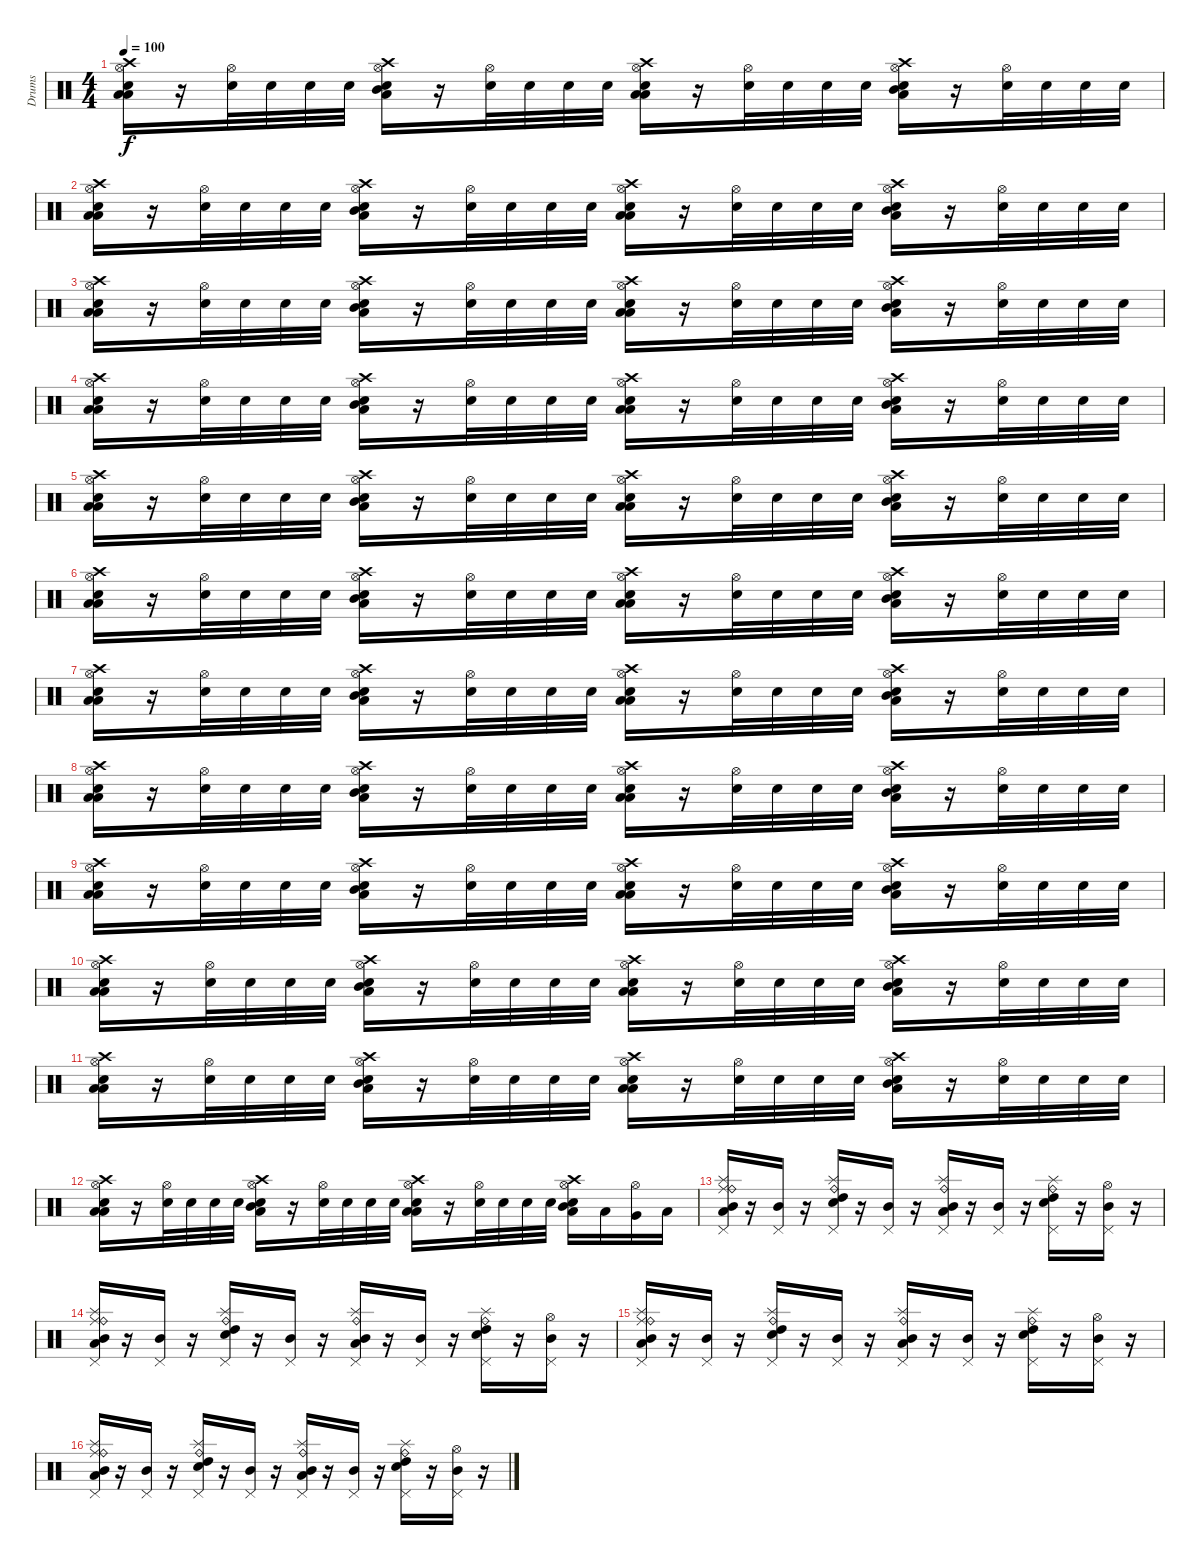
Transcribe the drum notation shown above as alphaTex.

\track ("Drums" "Drums") {instrument percussion}
\staff {score}
\articulation defaults
\ts (4 4)
\tempo 100
\clef neutral
\ks c
("Hi-Hat (open)" "Crash high (hit)" "Low Tom (hit)" "Low Floor Tom (hit)" "Electric Snare (hit)").16{dy f} r.16 ("Hi-Hat (open)" "Electric Snare (hit)").32 "Electric Snare (hit)".32 "Electric Snare (hit)".32 "Electric Snare (hit)".32 ("Hi-Hat (open)" "Crash high (hit)" "Mid Tom (hit)" "Low Floor Tom (hit)" "Electric Snare (hit)").16 r.16 ("Hi-Hat (open)" "Electric Snare (hit)").32 "Electric Snare (hit)".32 "Electric Snare (hit)".32 "Electric Snare (hit)".32 ("Hi-Hat (open)" "Crash high (hit)" "Low Tom (hit)" "Low Floor Tom (hit)" "Electric Snare (hit)").16 r.16 ("Hi-Hat (open)" "Electric Snare (hit)").32 "Electric Snare (hit)".32 "Electric Snare (hit)".32 "Electric Snare (hit)".32 ("Hi-Hat (open)" "Crash high (hit)" "Mid Tom (hit)" "Electric Snare (hit)" "Low Floor Tom (hit)").16 r.16 ("Hi-Hat (open)" "Electric Snare (hit)").32 "Electric Snare (hit)".32 "Electric Snare (hit)".32 "Electric Snare (hit)".32 |
("Hi-Hat (open)" "Crash high (hit)" "Low Tom (hit)" "Low Floor Tom (hit)" "Electric Snare (hit)").16 r.16 ("Hi-Hat (open)" "Electric Snare (hit)").32 "Electric Snare (hit)".32 "Electric Snare (hit)".32 "Electric Snare (hit)".32 ("Hi-Hat (open)" "Crash high (hit)" "Mid Tom (hit)" "Low Floor Tom (hit)" "Electric Snare (hit)").16 r.16 ("Hi-Hat (open)" "Electric Snare (hit)").32 "Electric Snare (hit)".32 "Electric Snare (hit)".32 "Electric Snare (hit)".32 ("Hi-Hat (open)" "Crash high (hit)" "Low Tom (hit)" "Low Floor Tom (hit)" "Electric Snare (hit)").16 r.16 ("Hi-Hat (open)" "Electric Snare (hit)").32 "Electric Snare (hit)".32 "Electric Snare (hit)".32 "Electric Snare (hit)".32 ("Hi-Hat (open)" "Crash high (hit)" "Mid Tom (hit)" "Electric Snare (hit)" "Low Floor Tom (hit)").16 r.16 ("Hi-Hat (open)" "Electric Snare (hit)").32 "Electric Snare (hit)".32 "Electric Snare (hit)".32 "Electric Snare (hit)".32 |
("Hi-Hat (open)" "Crash high (hit)" "Low Tom (hit)" "Low Floor Tom (hit)" "Electric Snare (hit)").16 r.16 ("Hi-Hat (open)" "Electric Snare (hit)").32 "Electric Snare (hit)".32 "Electric Snare (hit)".32 "Electric Snare (hit)".32 ("Hi-Hat (open)" "Crash high (hit)" "Mid Tom (hit)" "Low Floor Tom (hit)" "Electric Snare (hit)").16 r.16 ("Hi-Hat (open)" "Electric Snare (hit)").32 "Electric Snare (hit)".32 "Electric Snare (hit)".32 "Electric Snare (hit)".32 ("Hi-Hat (open)" "Crash high (hit)" "Low Tom (hit)" "Low Floor Tom (hit)" "Electric Snare (hit)").16 r.16 ("Hi-Hat (open)" "Electric Snare (hit)").32 "Electric Snare (hit)".32 "Electric Snare (hit)".32 "Electric Snare (hit)".32 ("Hi-Hat (open)" "Crash high (hit)" "Mid Tom (hit)" "Electric Snare (hit)" "Low Floor Tom (hit)").16 r.16 ("Hi-Hat (open)" "Electric Snare (hit)").32 "Electric Snare (hit)".32 "Electric Snare (hit)".32 "Electric Snare (hit)".32 |
("Hi-Hat (open)" "Crash high (hit)" "Low Tom (hit)" "Low Floor Tom (hit)" "Electric Snare (hit)").16 r.16 ("Hi-Hat (open)" "Electric Snare (hit)").32 "Electric Snare (hit)".32 "Electric Snare (hit)".32 "Electric Snare (hit)".32 ("Hi-Hat (open)" "Crash high (hit)" "Mid Tom (hit)" "Low Floor Tom (hit)" "Electric Snare (hit)").16 r.16 ("Hi-Hat (open)" "Electric Snare (hit)").32 "Electric Snare (hit)".32 "Electric Snare (hit)".32 "Electric Snare (hit)".32 ("Hi-Hat (open)" "Crash high (hit)" "Low Tom (hit)" "Low Floor Tom (hit)" "Electric Snare (hit)").16 r.16 ("Hi-Hat (open)" "Electric Snare (hit)").32 "Electric Snare (hit)".32 "Electric Snare (hit)".32 "Electric Snare (hit)".32 ("Hi-Hat (open)" "Crash high (hit)" "Mid Tom (hit)" "Electric Snare (hit)" "Low Floor Tom (hit)").16 r.16 ("Hi-Hat (open)" "Electric Snare (hit)").32 "Electric Snare (hit)".32 "Electric Snare (hit)".32 "Electric Snare (hit)".32 |
("Hi-Hat (open)" "Crash high (hit)" "Low Tom (hit)" "Low Floor Tom (hit)" "Electric Snare (hit)").16 r.16 ("Hi-Hat (open)" "Electric Snare (hit)").32 "Electric Snare (hit)".32 "Electric Snare (hit)".32 "Electric Snare (hit)".32 ("Hi-Hat (open)" "Crash high (hit)" "Mid Tom (hit)" "Low Floor Tom (hit)" "Electric Snare (hit)").16 r.16 ("Hi-Hat (open)" "Electric Snare (hit)").32 "Electric Snare (hit)".32 "Electric Snare (hit)".32 "Electric Snare (hit)".32 ("Hi-Hat (open)" "Crash high (hit)" "Low Tom (hit)" "Low Floor Tom (hit)" "Electric Snare (hit)").16 r.16 ("Hi-Hat (open)" "Electric Snare (hit)").32 "Electric Snare (hit)".32 "Electric Snare (hit)".32 "Electric Snare (hit)".32 ("Hi-Hat (open)" "Crash high (hit)" "Mid Tom (hit)" "Electric Snare (hit)" "Low Floor Tom (hit)").16 r.16 ("Hi-Hat (open)" "Electric Snare (hit)").32 "Electric Snare (hit)".32 "Electric Snare (hit)".32 "Electric Snare (hit)".32 |
("Hi-Hat (open)" "Crash high (hit)" "Low Tom (hit)" "Low Floor Tom (hit)" "Electric Snare (hit)").16 r.16 ("Hi-Hat (open)" "Electric Snare (hit)").32 "Electric Snare (hit)".32 "Electric Snare (hit)".32 "Electric Snare (hit)".32 ("Hi-Hat (open)" "Crash high (hit)" "Mid Tom (hit)" "Low Floor Tom (hit)" "Electric Snare (hit)").16 r.16 ("Hi-Hat (open)" "Electric Snare (hit)").32 "Electric Snare (hit)".32 "Electric Snare (hit)".32 "Electric Snare (hit)".32 ("Hi-Hat (open)" "Crash high (hit)" "Low Tom (hit)" "Low Floor Tom (hit)" "Electric Snare (hit)").16 r.16 ("Hi-Hat (open)" "Electric Snare (hit)").32 "Electric Snare (hit)".32 "Electric Snare (hit)".32 "Electric Snare (hit)".32 ("Hi-Hat (open)" "Crash high (hit)" "Mid Tom (hit)" "Electric Snare (hit)" "Low Floor Tom (hit)").16 r.16 ("Hi-Hat (open)" "Electric Snare (hit)").32 "Electric Snare (hit)".32 "Electric Snare (hit)".32 "Electric Snare (hit)".32 |
("Hi-Hat (open)" "Crash high (hit)" "Low Tom (hit)" "Low Floor Tom (hit)" "Electric Snare (hit)").16 r.16 ("Hi-Hat (open)" "Electric Snare (hit)").32 "Electric Snare (hit)".32 "Electric Snare (hit)".32 "Electric Snare (hit)".32 ("Hi-Hat (open)" "Crash high (hit)" "Mid Tom (hit)" "Low Floor Tom (hit)" "Electric Snare (hit)").16 r.16 ("Hi-Hat (open)" "Electric Snare (hit)").32 "Electric Snare (hit)".32 "Electric Snare (hit)".32 "Electric Snare (hit)".32 ("Hi-Hat (open)" "Crash high (hit)" "Low Tom (hit)" "Low Floor Tom (hit)" "Electric Snare (hit)").16 r.16 ("Hi-Hat (open)" "Electric Snare (hit)").32 "Electric Snare (hit)".32 "Electric Snare (hit)".32 "Electric Snare (hit)".32 ("Hi-Hat (open)" "Crash high (hit)" "Mid Tom (hit)" "Electric Snare (hit)" "Low Floor Tom (hit)").16 r.16 ("Hi-Hat (open)" "Electric Snare (hit)").32 "Electric Snare (hit)".32 "Electric Snare (hit)".32 "Electric Snare (hit)".32 |
("Hi-Hat (open)" "Crash high (hit)" "Low Tom (hit)" "Low Floor Tom (hit)" "Electric Snare (hit)").16 r.16 ("Hi-Hat (open)" "Electric Snare (hit)").32 "Electric Snare (hit)".32 "Electric Snare (hit)".32 "Electric Snare (hit)".32 ("Hi-Hat (open)" "Crash high (hit)" "Mid Tom (hit)" "Low Floor Tom (hit)" "Electric Snare (hit)").16 r.16 ("Hi-Hat (open)" "Electric Snare (hit)").32 "Electric Snare (hit)".32 "Electric Snare (hit)".32 "Electric Snare (hit)".32 ("Hi-Hat (open)" "Crash high (hit)" "Low Tom (hit)" "Low Floor Tom (hit)" "Electric Snare (hit)").16 r.16 ("Hi-Hat (open)" "Electric Snare (hit)").32 "Electric Snare (hit)".32 "Electric Snare (hit)".32 "Electric Snare (hit)".32 ("Hi-Hat (open)" "Crash high (hit)" "Mid Tom (hit)" "Electric Snare (hit)" "Low Floor Tom (hit)").16 r.16 ("Hi-Hat (open)" "Electric Snare (hit)").32 "Electric Snare (hit)".32 "Electric Snare (hit)".32 "Electric Snare (hit)".32 |
("Hi-Hat (open)" "Crash high (hit)" "Low Tom (hit)" "Low Floor Tom (hit)" "Electric Snare (hit)").16 r.16 ("Hi-Hat (open)" "Electric Snare (hit)").32 "Electric Snare (hit)".32 "Electric Snare (hit)".32 "Electric Snare (hit)".32 ("Hi-Hat (open)" "Crash high (hit)" "Mid Tom (hit)" "Low Floor Tom (hit)" "Electric Snare (hit)").16 r.16 ("Hi-Hat (open)" "Electric Snare (hit)").32 "Electric Snare (hit)".32 "Electric Snare (hit)".32 "Electric Snare (hit)".32 ("Hi-Hat (open)" "Crash high (hit)" "Low Tom (hit)" "Low Floor Tom (hit)" "Electric Snare (hit)").16 r.16 ("Hi-Hat (open)" "Electric Snare (hit)").32 "Electric Snare (hit)".32 "Electric Snare (hit)".32 "Electric Snare (hit)".32 ("Hi-Hat (open)" "Crash high (hit)" "Mid Tom (hit)" "Electric Snare (hit)" "Low Floor Tom (hit)").16 r.16 ("Hi-Hat (open)" "Electric Snare (hit)").32 "Electric Snare (hit)".32 "Electric Snare (hit)".32 "Electric Snare (hit)".32 |
("Hi-Hat (open)" "Crash high (hit)" "Low Tom (hit)" "Low Floor Tom (hit)" "Electric Snare (hit)").16 r.16 ("Hi-Hat (open)" "Electric Snare (hit)").32 "Electric Snare (hit)".32 "Electric Snare (hit)".32 "Electric Snare (hit)".32 ("Hi-Hat (open)" "Crash high (hit)" "Mid Tom (hit)" "Low Floor Tom (hit)" "Electric Snare (hit)").16 r.16 ("Hi-Hat (open)" "Electric Snare (hit)").32 "Electric Snare (hit)".32 "Electric Snare (hit)".32 "Electric Snare (hit)".32 ("Hi-Hat (open)" "Crash high (hit)" "Low Tom (hit)" "Low Floor Tom (hit)" "Electric Snare (hit)").16 r.16 ("Hi-Hat (open)" "Electric Snare (hit)").32 "Electric Snare (hit)".32 "Electric Snare (hit)".32 "Electric Snare (hit)".32 ("Hi-Hat (open)" "Crash high (hit)" "Mid Tom (hit)" "Electric Snare (hit)" "Low Floor Tom (hit)").16 r.16 ("Hi-Hat (open)" "Electric Snare (hit)").32 "Electric Snare (hit)".32 "Electric Snare (hit)".32 "Electric Snare (hit)".32 |
("Hi-Hat (open)" "Crash high (hit)" "Low Tom (hit)" "Low Floor Tom (hit)" "Electric Snare (hit)").16 r.16 ("Hi-Hat (open)" "Electric Snare (hit)").32 "Electric Snare (hit)".32 "Electric Snare (hit)".32 "Electric Snare (hit)".32 ("Hi-Hat (open)" "Crash high (hit)" "Mid Tom (hit)" "Low Floor Tom (hit)" "Electric Snare (hit)").16 r.16 ("Hi-Hat (open)" "Electric Snare (hit)").32 "Electric Snare (hit)".32 "Electric Snare (hit)".32 "Electric Snare (hit)".32 ("Hi-Hat (open)" "Crash high (hit)" "Low Tom (hit)" "Low Floor Tom (hit)" "Electric Snare (hit)").16 r.16 ("Hi-Hat (open)" "Electric Snare (hit)").32 "Electric Snare (hit)".32 "Electric Snare (hit)".32 "Electric Snare (hit)".32 ("Hi-Hat (open)" "Crash high (hit)" "Mid Tom (hit)" "Electric Snare (hit)" "Low Floor Tom (hit)").16 r.16 ("Hi-Hat (open)" "Electric Snare (hit)").32 "Electric Snare (hit)".32 "Electric Snare (hit)".32 "Electric Snare (hit)".32 |
("Hi-Hat (open)" "Crash high (hit)" "Low Tom (hit)" "Low Floor Tom (hit)" "Electric Snare (hit)").16 r.16 ("Hi-Hat (open)" "Electric Snare (hit)").32 "Electric Snare (hit)".32 "Electric Snare (hit)".32 "Electric Snare (hit)".32 ("Hi-Hat (open)" "Crash high (hit)" "Mid Tom (hit)" "Low Floor Tom (hit)" "Electric Snare (hit)").16 r.16 ("Hi-Hat (open)" "Electric Snare (hit)").32 "Electric Snare (hit)".32 "Electric Snare (hit)".32 "Electric Snare (hit)".32 ("Hi-Hat (open)" "Crash high (hit)" "Low Tom (hit)" "Low Floor Tom (hit)" "Electric Snare (hit)").16 r.16 ("Hi-Hat (open)" "Electric Snare (hit)").32 "Electric Snare (hit)".32 "Electric Snare (hit)".32 "Electric Snare (hit)".32 ("Hi-Hat (open)" "Crash high (hit)" "Mid Tom (hit)" "Electric Snare (hit)" "Low Floor Tom (hit)").16 "Low Tom (hit)".16 ("Very Low Tom (hit)" "Hi-Hat (open)").16 "Low Floor Tom (hit)".16 |
("Ride (middle)" "Splash (hit)" "Pedal Hi-Hat (hit)" "Mid Tom (hit)" "Ride (bell)" "Low Floor Tom (hit)").16 r.16 ("Pedal Hi-Hat (hit)" "Mid Tom (hit)").16 r.16 ("Splash (hit)" "Pedal Hi-Hat (hit)" "High Tom (hit)" "Ride (bell)" "Electric Snare (hit)").16 r.16 ("Pedal Hi-Hat (hit)" "Mid Tom (hit)").16 r.16 ("Splash (hit)" "Pedal Hi-Hat (hit)" "Mid Tom (hit)" "Low Floor Tom (hit)" "Ride (bell)").16 r.16 ("Pedal Hi-Hat (hit)" "Mid Tom (hit)").16 r.16 ("Splash (hit)" "Pedal Hi-Hat (hit)" "High Tom (hit)" "Electric Snare (hit)" "Ride (bell)").16 r.16 ("Hi-Hat (open)" "Pedal Hi-Hat (hit)" "Mid Tom (hit)").16 r.16 |
("Ride (middle)" "Splash (hit)" "Pedal Hi-Hat (hit)" "Mid Tom (hit)" "Ride (bell)" "Low Floor Tom (hit)").16 r.16 ("Pedal Hi-Hat (hit)" "Mid Tom (hit)").16 r.16 ("Splash (hit)" "Pedal Hi-Hat (hit)" "High Tom (hit)" "Ride (bell)" "Electric Snare (hit)").16 r.16 ("Pedal Hi-Hat (hit)" "Mid Tom (hit)").16 r.16 ("Splash (hit)" "Pedal Hi-Hat (hit)" "Mid Tom (hit)" "Low Floor Tom (hit)" "Ride (bell)").16 r.16 ("Pedal Hi-Hat (hit)" "Mid Tom (hit)").16 r.16 ("Splash (hit)" "Pedal Hi-Hat (hit)" "High Tom (hit)" "Electric Snare (hit)" "Ride (bell)").16 r.16 ("Hi-Hat (open)" "Pedal Hi-Hat (hit)" "Mid Tom (hit)").16 r.16 |
("Ride (middle)" "Splash (hit)" "Pedal Hi-Hat (hit)" "Mid Tom (hit)" "Ride (bell)" "Low Floor Tom (hit)").16 r.16 ("Pedal Hi-Hat (hit)" "Mid Tom (hit)").16 r.16 ("Splash (hit)" "Pedal Hi-Hat (hit)" "High Tom (hit)" "Ride (bell)" "Electric Snare (hit)").16 r.16 ("Pedal Hi-Hat (hit)" "Mid Tom (hit)").16 r.16 ("Splash (hit)" "Pedal Hi-Hat (hit)" "Mid Tom (hit)" "Low Floor Tom (hit)" "Ride (bell)").16 r.16 ("Pedal Hi-Hat (hit)" "Mid Tom (hit)").16 r.16 ("Splash (hit)" "Pedal Hi-Hat (hit)" "High Tom (hit)" "Electric Snare (hit)" "Ride (bell)").16 r.16 ("Hi-Hat (open)" "Pedal Hi-Hat (hit)" "Mid Tom (hit)").16 r.16 |
("Ride (middle)" "Splash (hit)" "Pedal Hi-Hat (hit)" "Mid Tom (hit)" "Ride (bell)" "Low Floor Tom (hit)").16 r.16 ("Pedal Hi-Hat (hit)" "Mid Tom (hit)").16 r.16 ("Splash (hit)" "Pedal Hi-Hat (hit)" "High Tom (hit)" "Ride (bell)" "Electric Snare (hit)").16 r.16 ("Pedal Hi-Hat (hit)" "Mid Tom (hit)").16 r.16 ("Splash (hit)" "Pedal Hi-Hat (hit)" "Mid Tom (hit)" "Low Floor Tom (hit)" "Ride (bell)").16 r.16 ("Pedal Hi-Hat (hit)" "Mid Tom (hit)").16 r.16 ("Splash (hit)" "Pedal Hi-Hat (hit)" "High Tom (hit)" "Electric Snare (hit)" "Ride (bell)").16 r.16 ("Hi-Hat (open)" "Pedal Hi-Hat (hit)" "Mid Tom (hit)").16 r.16
